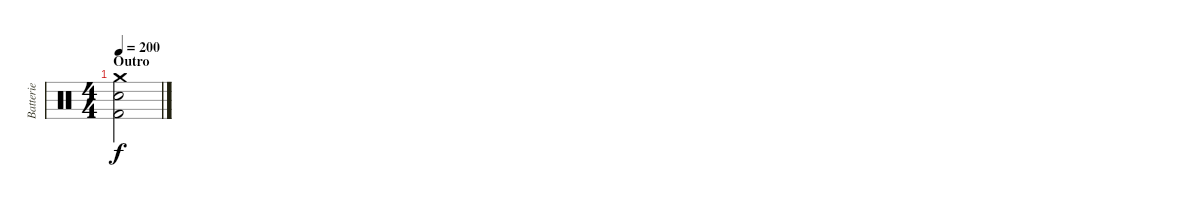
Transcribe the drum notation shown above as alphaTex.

\track ("Batterie" "Batterie") {instrument percussion}
\staff {score}
\articulation defaults
\ts (4 4)
\section ("" "Outro")
\tempo 200
\clef neutral
\ks c
("Crash medium (hit)" "Snare (hit) 2" "Kick (hit) 2").2{dy f}
